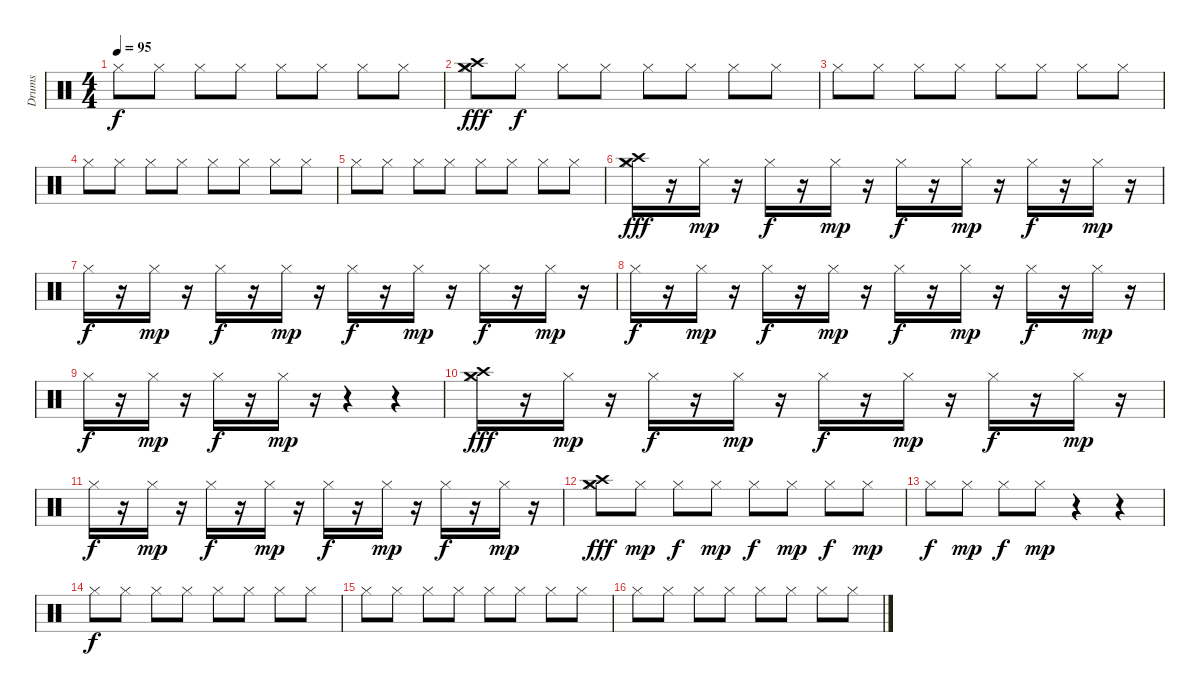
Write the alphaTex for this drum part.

\bracketExtendMode groupsimilarinstruments
\otherSystemsTrackNameOrientation horizontal
\track ("Drumkit" "Drums") {instrument percussion}
\staff {score}
\articulation defaults
\ts (4 4)
\tempo 95
\clef neutral
\ks c "Hi-Hat (closed)".8{dy f} "Hi-Hat (closed)".8 "Hi-Hat (closed)".8 "Hi-Hat (closed)".8 "Hi-Hat (closed)".8 "Hi-Hat (closed)".8 "Hi-Hat (closed)".8 "Hi-Hat (closed)".8
|
("Crash medium (hit)" "Crash high (hit)" "Hi-Hat (closed)").8{dy fff} "Hi-Hat (closed)".8{dy f} "Hi-Hat (closed)".8 "Hi-Hat (closed)".8 "Hi-Hat (closed)".8 "Hi-Hat (closed)".8 "Hi-Hat (closed)".8 "Hi-Hat (closed)".8 |
"Hi-Hat (closed)".8 "Hi-Hat (closed)".8 "Hi-Hat (closed)".8 "Hi-Hat (closed)".8 "Hi-Hat (closed)".8 "Hi-Hat (closed)".8 "Hi-Hat (closed)".8 "Hi-Hat (closed)".8 |
"Hi-Hat (closed)".8 "Hi-Hat (closed)".8 "Hi-Hat (closed)".8 "Hi-Hat (closed)".8 "Hi-Hat (closed)".8 "Hi-Hat (closed)".8 "Hi-Hat (closed)".8 "Hi-Hat (closed)".8 |
"Hi-Hat (closed)".8 "Hi-Hat (closed)".8 "Hi-Hat (closed)".8 "Hi-Hat (closed)".8 "Hi-Hat (closed)".8 "Hi-Hat (closed)".8 "Hi-Hat (closed)".8 "Hi-Hat (closed)".8 |
("Crash high (hit)" "Crash medium (hit)" "Hi-Hat (closed)").16{dy fff} r.16 "Hi-Hat (closed)".16{dy mp} r.16 "Hi-Hat (closed)".16{dy f} r.16 "Hi-Hat (closed)".16{dy mp} r.16 "Hi-Hat (closed)".16{dy f} r.16 "Hi-Hat (closed)".16{dy mp} r.16 "Hi-Hat (closed)".16{dy f} r.16 "Hi-Hat (closed)".16{dy mp} r.16 |
"Hi-Hat (closed)".16{dy f} r.16 "Hi-Hat (closed)".16{dy mp} r.16 "Hi-Hat (closed)".16{dy f} r.16 "Hi-Hat (closed)".16{dy mp} r.16 "Hi-Hat (closed)".16{dy f} r.16 "Hi-Hat (closed)".16{dy mp} r.16 "Hi-Hat (closed)".16{dy f} r.16 "Hi-Hat (closed)".16{dy mp} r.16 |
"Hi-Hat (closed)".16{dy f} r.16 "Hi-Hat (closed)".16{dy mp} r.16 "Hi-Hat (closed)".16{dy f} r.16 "Hi-Hat (closed)".16{dy mp} r.16 "Hi-Hat (closed)".16{dy f} r.16 "Hi-Hat (closed)".16{dy mp} r.16 "Hi-Hat (closed)".16{dy f} r.16 "Hi-Hat (closed)".16{dy mp} r.16 |
"Hi-Hat (closed)".16{dy f} r.16 "Hi-Hat (closed)".16{dy mp} r.16 "Hi-Hat (closed)".16{dy f} r.16 "Hi-Hat (closed)".16{dy mp} r.16 r.4 r.4 |
("Crash high (hit)" "Crash medium (hit)" "Hi-Hat (closed)").16{dy fff} r.16 "Hi-Hat (closed)".16{dy mp} r.16 "Hi-Hat (closed)".16{dy f} r.16 "Hi-Hat (closed)".16{dy mp} r.16 "Hi-Hat (closed)".16{dy f} r.16 "Hi-Hat (closed)".16{dy mp} r.16 "Hi-Hat (closed)".16{dy f} r.16 "Hi-Hat (closed)".16{dy mp} r.16 |
"Hi-Hat (closed)".16{dy f} r.16 "Hi-Hat (closed)".16{dy mp} r.16 "Hi-Hat (closed)".16{dy f} r.16 "Hi-Hat (closed)".16{dy mp} r.16 "Hi-Hat (closed)".16{dy f} r.16 "Hi-Hat (closed)".16{dy mp} r.16 "Hi-Hat (closed)".16{dy f} r.16 "Hi-Hat (closed)".16{dy mp} r.16 |
("Crash high (hit)" "Crash medium (hit)" "Hi-Hat (closed)").8{dy fff} "Hi-Hat (closed)".8{dy mp} "Hi-Hat (closed)".8{dy f} "Hi-Hat (closed)".8{dy mp} "Hi-Hat (closed)".8{dy f} "Hi-Hat (closed)".8{dy mp} "Hi-Hat (closed)".8{dy f} "Hi-Hat (closed)".8{dy mp} |
"Hi-Hat (closed)".8{dy f} "Hi-Hat (closed)".8{dy mp} "Hi-Hat (closed)".8{dy f} "Hi-Hat (closed)".8{dy mp} r.4 r.4 |
"Hi-Hat (closed)".8{dy f} "Hi-Hat (closed)".8 "Hi-Hat (closed)".8 "Hi-Hat (closed)".8 "Hi-Hat (closed)".8 "Hi-Hat (closed)".8 "Hi-Hat (closed)".8 "Hi-Hat (closed)".8 |
"Hi-Hat (closed)".8 "Hi-Hat (closed)".8 "Hi-Hat (closed)".8 "Hi-Hat (closed)".8 "Hi-Hat (closed)".8 "Hi-Hat (closed)".8 "Hi-Hat (closed)".8 "Hi-Hat (closed)".8 |
"Hi-Hat (closed)".8 "Hi-Hat (closed)".8 "Hi-Hat (closed)".8 "Hi-Hat (closed)".8 "Hi-Hat (closed)".8 "Hi-Hat (closed)".8 "Hi-Hat (closed)".8 "Hi-Hat (closed)".8
